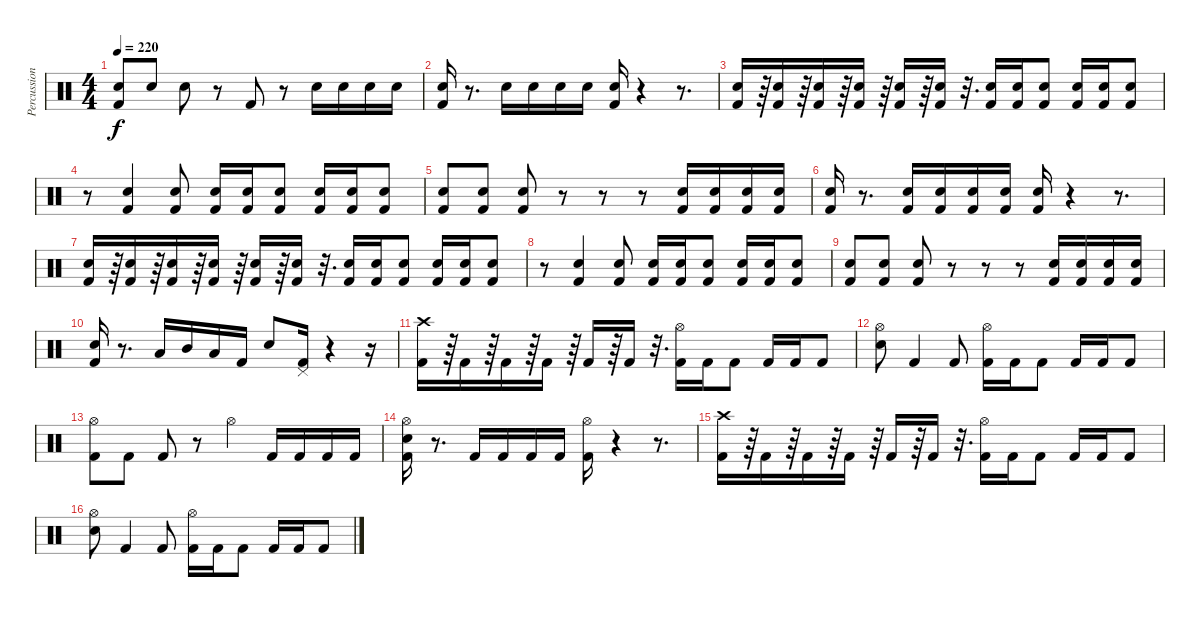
\track ("Percussion (Dan Wilding)" "Percussion") {instrument percussion}
\staff {score}
\articulation defaults
\ts (4 4)
\tempo 220
\clef neutral
\ks c
("Electric Snare (hit)" "Kick (hit) 2").8{dy f} "Electric Snare (hit)".8 "Electric Snare (hit)".8 r.8 "Kick (hit) 2".8 r.8 "Electric Snare (hit)".16 "Electric Snare (hit)".16 "Electric Snare (hit)".16 "Electric Snare (hit)".16 |
("Electric Snare (hit)" "Kick (hit) 2").16 r.8{d} "Electric Snare (hit)".16 "Electric Snare (hit)".16 "Electric Snare (hit)".16 "Electric Snare (hit)".16 ("Electric Snare (hit)" "Kick (hit) 2").16 r.4 r.8{d} |
("Electric Snare (hit)" "Kick (hit) 2").16 r.64 ("Electric Snare (hit)" "Kick (hit) 2").16 r.64 ("Electric Snare (hit)" "Kick (hit) 2").16 r.64 ("Electric Snare (hit)" "Kick (hit) 2").16 r.64 ("Electric Snare (hit)" "Kick (hit) 2").16 r.64 ("Electric Snare (hit)" "Kick (hit) 2").16 r.32{d} ("Electric Snare (hit)" "Kick (hit) 2").16 ("Electric Snare (hit)" "Kick (hit) 2").16 ("Electric Snare (hit)" "Kick (hit) 2").8 ("Electric Snare (hit)" "Kick (hit) 2").16 ("Electric Snare (hit)" "Kick (hit) 2").16 ("Electric Snare (hit)" "Kick (hit) 2").8 |
r.8 ("Electric Snare (hit)" "Kick (hit) 2").4 ("Electric Snare (hit)" "Kick (hit) 2").8 ("Electric Snare (hit)" "Kick (hit) 2").16 ("Electric Snare (hit)" "Kick (hit) 2").16 ("Electric Snare (hit)" "Kick (hit) 2").8 ("Electric Snare (hit)" "Kick (hit) 2").16 ("Electric Snare (hit)" "Kick (hit) 2").16 ("Electric Snare (hit)" "Kick (hit) 2").8 |
("Electric Snare (hit)" "Kick (hit) 2").8 ("Electric Snare (hit)" "Kick (hit) 2").8 ("Electric Snare (hit)" "Kick (hit) 2").8 r.8 r.8 r.8 ("Electric Snare (hit)" "Kick (hit) 2").16 ("Electric Snare (hit)" "Kick (hit) 2").16 ("Electric Snare (hit)" "Kick (hit) 2").16 ("Electric Snare (hit)" "Kick (hit) 2").16 |
("Electric Snare (hit)" "Kick (hit) 2").16 r.8{d} ("Electric Snare (hit)" "Kick (hit) 2").16 ("Electric Snare (hit)" "Kick (hit) 2").16 ("Electric Snare (hit)" "Kick (hit) 2").16 ("Electric Snare (hit)" "Kick (hit) 2").16 ("Electric Snare (hit)" "Kick (hit) 2").16 r.4 r.8{d} |
("Electric Snare (hit)" "Kick (hit) 2").16 r.64 ("Electric Snare (hit)" "Kick (hit) 2").16 r.64 ("Electric Snare (hit)" "Kick (hit) 2").16 r.64 ("Electric Snare (hit)" "Kick (hit) 2").16 r.64 ("Electric Snare (hit)" "Kick (hit) 2").16 r.64 ("Electric Snare (hit)" "Kick (hit) 2").16 r.32{d} ("Electric Snare (hit)" "Kick (hit) 2").16 ("Electric Snare (hit)" "Kick (hit) 2").16 ("Electric Snare (hit)" "Kick (hit) 2").8 ("Electric Snare (hit)" "Kick (hit) 2").16 ("Electric Snare (hit)" "Kick (hit) 2").16 ("Electric Snare (hit)" "Kick (hit) 2").8 |
r.8 ("Electric Snare (hit)" "Kick (hit) 2").4 ("Electric Snare (hit)" "Kick (hit) 2").8 ("Electric Snare (hit)" "Kick (hit) 2").16 ("Electric Snare (hit)" "Kick (hit) 2").16 ("Electric Snare (hit)" "Kick (hit) 2").8 ("Electric Snare (hit)" "Kick (hit) 2").16 ("Electric Snare (hit)" "Kick (hit) 2").16 ("Electric Snare (hit)" "Kick (hit) 2").8 |
("Electric Snare (hit)" "Kick (hit) 2").8 ("Electric Snare (hit)" "Kick (hit) 2").8 ("Electric Snare (hit)" "Kick (hit) 2").8 r.8 r.8 r.8 ("Electric Snare (hit)" "Kick (hit) 2").16 ("Electric Snare (hit)" "Kick (hit) 2").16 ("Electric Snare (hit)" "Kick (hit) 2").16 ("Electric Snare (hit)" "Kick (hit) 2").16 |
("Electric Snare (hit)" "Kick (hit) 2").16 r.8{d} "Low Tom (hit)".16 "Mid Tom (hit)".16 "Low Tom (hit)".16 "Kick (hit) 2".16 "Electric Snare (hit)".8 ("Pedal Hi-Hat (hit)" "Kick (hit) 2").16 r.4 r.16 |
("Crash high (hit)" "Kick (hit) 2").16 r.64 "Kick (hit) 2".16 r.64 "Kick (hit) 2".16 r.64 "Kick (hit) 2".16 r.64 "Kick (hit) 2".16 r.64 "Kick (hit) 2".16 r.32{d} ("Hi-Hat (open)" "Kick (hit) 2").16 "Kick (hit) 2".16 "Kick (hit) 2".8 "Kick (hit) 2".16 "Kick (hit) 2".16 "Kick (hit) 2".8 |
("Hi-Hat (open)" "Electric Snare (hit)").8 "Kick (hit) 2".4 "Kick (hit) 2".8 ("Hi-Hat (open)" "Kick (hit) 2").16 "Kick (hit) 2".16 "Kick (hit) 2".8 "Kick (hit) 2".16 "Kick (hit) 2".16 "Kick (hit) 2".8 |
("Hi-Hat (open)" "Kick (hit) 2").8 "Kick (hit) 2".8 "Kick (hit) 2".8 r.8 "Hi-Hat (open)".4 "Kick (hit) 2".16 "Kick (hit) 2".16 "Kick (hit) 2".16 "Kick (hit) 2".16 |
("Hi-Hat (open)" "Electric Snare (hit)" "Kick (hit) 2").16 r.8{d} "Kick (hit) 2".16 "Kick (hit) 2".16 "Kick (hit) 2".16 "Kick (hit) 2".16 ("Hi-Hat (open)" "Kick (hit) 2").16 r.4 r.8{d} |
("Crash high (hit)" "Kick (hit) 2").16 r.64 "Kick (hit) 2".16 r.64 "Kick (hit) 2".16 r.64 "Kick (hit) 2".16 r.64 "Kick (hit) 2".16 r.64 "Kick (hit) 2".16 r.32{d} ("Hi-Hat (open)" "Kick (hit) 2").16 "Kick (hit) 2".16 "Kick (hit) 2".8 "Kick (hit) 2".16 "Kick (hit) 2".16 "Kick (hit) 2".8 |
("Hi-Hat (open)" "Electric Snare (hit)").8 "Kick (hit) 2".4 "Kick (hit) 2".8 ("Hi-Hat (open)" "Kick (hit) 2").16 "Kick (hit) 2".16 "Kick (hit) 2".8 "Kick (hit) 2".16 "Kick (hit) 2".16 "Kick (hit) 2".8
